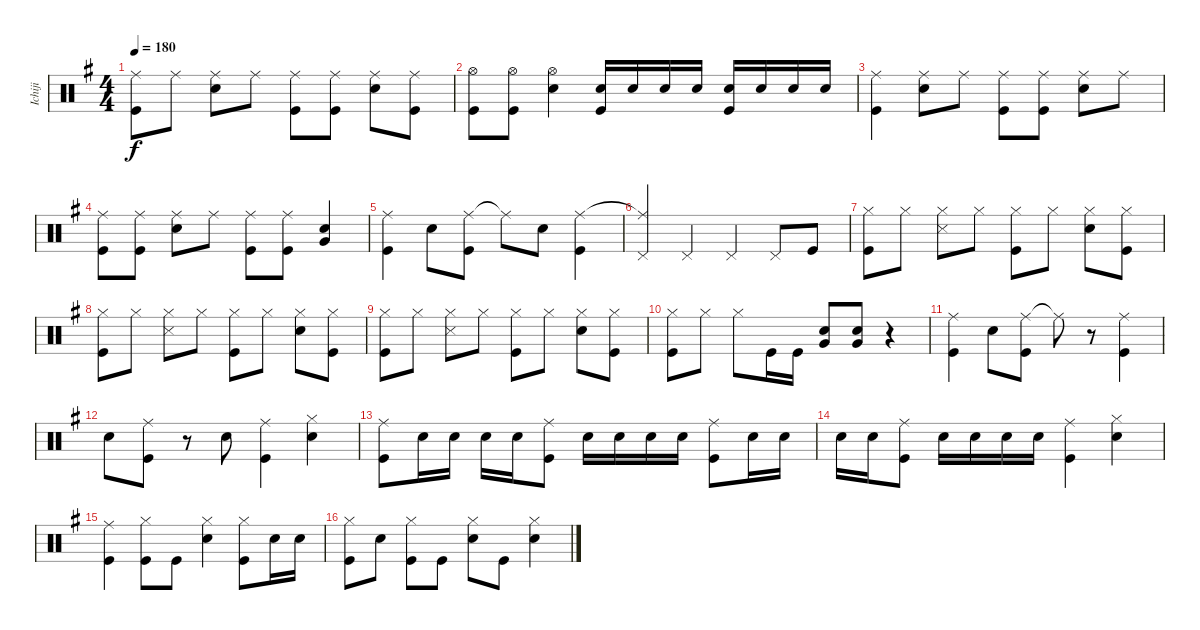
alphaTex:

\track ("Ichiji" "Ichiji") {instrument percussion}
\staff {score}
\articulation defaults
\ts (4 4)
\tempo 180
\clef neutral
\ks g
("Ride (middle)" "Kick (hit)").8{dy f} "Ride (middle)".8 ("Ride (middle)" "Snare (hit) 2").8 "Ride (middle)".8 ("Ride (middle)" "Kick (hit)").8 ("Ride (middle)" "Kick (hit)").8 ("Ride (middle)" "Snare (hit) 2").8 ("Ride (middle)" "Kick (hit)").8 |
("Hi-Hat (open)" "Kick (hit)").8 ("Hi-Hat (open)" "Kick (hit)").8 ("Hi-Hat (open)" "Snare (hit) 2").4 ("Snare (hit) 2" "Kick (hit)").16 "Snare (hit) 2".16 "Snare (hit) 2".16 "Snare (hit) 2".16 ("Snare (hit) 2" "Kick (hit)").16 "Snare (hit) 2".16 "Snare (hit) 2".16 "Snare (hit) 2".16 |
("Ride (middle)" "Kick (hit)").4 ("Ride (middle)" "Snare (hit) 2").8 "Ride (middle)".8 ("Ride (middle)" "Kick (hit)").8 ("Ride (middle)" "Kick (hit)").8 ("Ride (middle)" "Snare (hit) 2").8 "Ride (middle)".8 |
("Kick (hit)" "Ride (middle)").8 ("Kick (hit)" "Ride (middle)").8 ("Snare (hit) 2" "Ride (middle)").8 "Ride (middle)".8 ("Kick (hit)" "Ride (middle)").8 ("Kick (hit)" "Ride (middle)").8 ("Snare (hit) 2" "Very Low Tom (hit)").4 |
("Ride (middle)" "Kick (hit)").4 "Snare (hit) 2".8 ("Ride (middle)" "Kick (hit)").8 "Ride (middle)"{t}.8 "Snare (hit) 2".8 ("Ride (middle)" "Kick (hit)").4 |
("Ride (middle)"{t} "Pedal Hi-Hat (hit)").4 "Pedal Hi-Hat (hit)".4 "Pedal Hi-Hat (hit)".4 "Pedal Hi-Hat (hit)".8 "Kick (hit)".8 |
("Hi-Hat (closed)" "Kick (hit)").8 "Hi-Hat (closed)".8 ("Hi-Hat (closed)" "Snare (side stick) 3").8 "Hi-Hat (closed)".8 ("Hi-Hat (closed)" "Kick (hit)").8 "Hi-Hat (closed)".8 ("Hi-Hat (closed)" "Snare (hit) 2").8 ("Hi-Hat (closed)" "Kick (hit)").8 |
("Hi-Hat (closed)" "Kick (hit)").8 "Hi-Hat (closed)".8 ("Hi-Hat (closed)" "Snare (side stick) 3").8 "Hi-Hat (closed)".8 ("Hi-Hat (closed)" "Kick (hit)").8 "Hi-Hat (closed)".8 ("Hi-Hat (closed)" "Snare (hit) 2").8 ("Hi-Hat (closed)" "Kick (hit)").8 |
("Hi-Hat (closed)" "Kick (hit)").8 "Hi-Hat (closed)".8 ("Hi-Hat (closed)" "Snare (side stick) 3").8 "Hi-Hat (closed)".8 ("Hi-Hat (closed)" "Kick (hit)").8 "Hi-Hat (closed)".8 ("Hi-Hat (closed)" "Snare (hit) 2").8 ("Hi-Hat (closed)" "Kick (hit)").8 |
("Hi-Hat (closed)" "Kick (hit)").8 "Hi-Hat (closed)".8 "Hi-Hat (closed)".8 "Kick (hit)".16 "Kick (hit)".16 ("Snare (hit) 2" "Very Low Tom (hit)").8 ("Snare (hit) 2" "Very Low Tom (hit)").8 r.4 |
("Ride (middle)" "Kick (hit)").4 "Snare (hit) 2".8 ("Ride (middle)" "Kick (hit)").8 "Ride (middle)"{t}.8 r.8 ("Ride (middle)" "Kick (hit)").4 |
"Snare (hit) 2".8 ("Ride (middle)" "Kick (hit)").8 r.8 "Snare (hit) 2".8 ("Ride (middle)" "Kick (hit)").4 ("Hi-Hat (closed)" "Snare (hit) 2").4 |
("Ride (middle)" "Kick (hit)").8 "Snare (hit) 2".16 "Snare (hit) 2".16 "Snare (hit) 2".16 "Snare (hit) 2".16 ("Ride (middle)" "Kick (hit)").8 "Snare (hit) 2".16 "Snare (hit) 2".16 "Snare (hit) 2".16 "Snare (hit) 2".16 ("Ride (middle)" "Kick (hit)").8 "Snare (hit) 2".16 "Snare (hit) 2".16 |
"Snare (hit) 2".16 "Snare (hit) 2".16 ("Ride (middle)" "Kick (hit)").8 "Snare (hit) 2".16 "Snare (hit) 2".16 "Snare (hit) 2".16 "Snare (hit) 2".16 ("Ride (middle)" "Kick (hit)").4 ("Hi-Hat (closed)" "Snare (hit) 2").4 |
("Ride (middle)" "Kick (hit)").4 ("Hi-Hat (closed)" "Kick (hit)").8 "Kick (hit)".8 ("Hi-Hat (closed)" "Snare (hit) 2").4 ("Hi-Hat (closed)" "Kick (hit)").8 "Snare (hit) 2".16 "Snare (hit) 2".16 |
("Hi-Hat (closed)" "Kick (hit)").8 "Snare (hit) 2".8 ("Hi-Hat (closed)" "Kick (hit)").8 "Kick (hit)".8 ("Hi-Hat (closed)" "Snare (hit) 2").8 "Kick (hit)".8 ("Hi-Hat (closed)" "Snare (hit) 2").4
